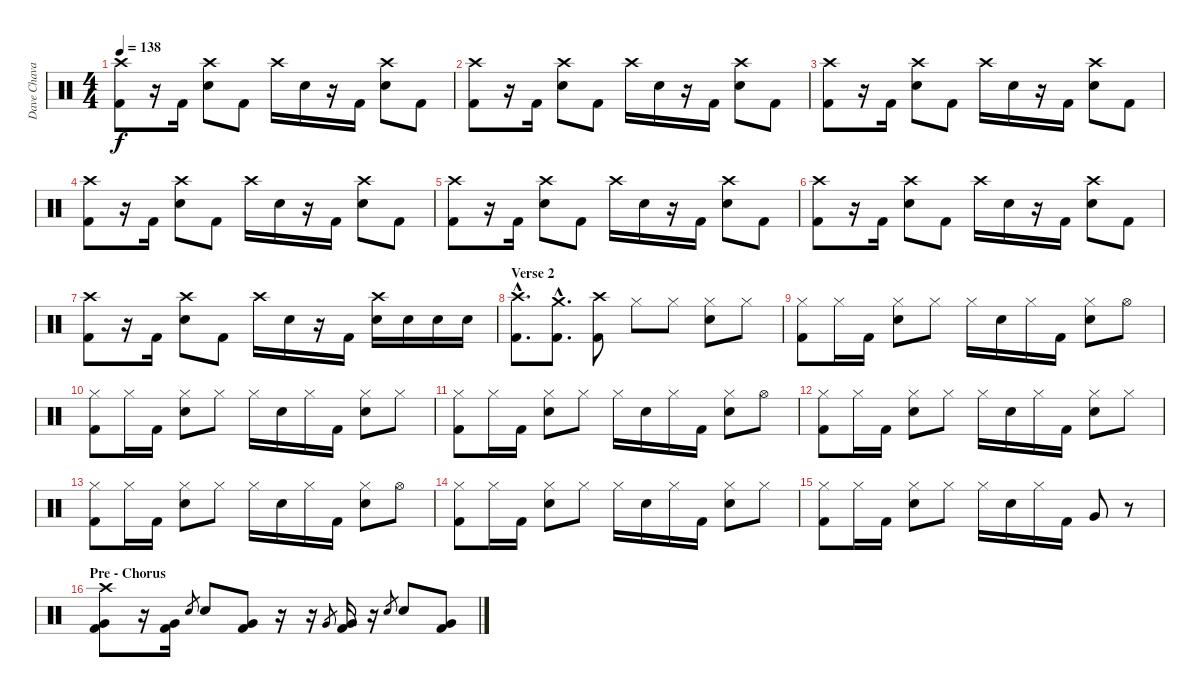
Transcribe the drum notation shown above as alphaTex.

\track ("Dave Chavarri - Drums" "Dave Chava") {instrument percussion}
\staff {score}
\articulation defaults
\ts (4 4)
\tempo 138
\clef neutral
\ks c
("Crash high (hit)" "Kick (hit) 2").8{dy f} r.16 "Kick (hit) 2".16 ("Crash high (hit)" "Electric Snare (hit)").8 "Kick (hit) 2".8 "Crash high (hit)".16 "Electric Snare (hit)".16 r.16 "Kick (hit) 2".16 ("Crash high (hit)" "Electric Snare (hit)").8 "Kick (hit) 2".8 |
("Crash high (hit)" "Kick (hit) 2").8 r.16 "Kick (hit) 2".16 ("Crash high (hit)" "Electric Snare (hit)").8 "Kick (hit) 2".8 "Crash high (hit)".16 "Electric Snare (hit)".16 r.16 "Kick (hit) 2".16 ("Crash high (hit)" "Electric Snare (hit)").8 "Kick (hit) 2".8 |
("Crash high (hit)" "Kick (hit) 2").8 r.16 "Kick (hit) 2".16 ("Crash high (hit)" "Electric Snare (hit)").8 "Kick (hit) 2".8 "Crash high (hit)".16 "Electric Snare (hit)".16 r.16 "Kick (hit) 2".16 ("Crash high (hit)" "Electric Snare (hit)").8 "Kick (hit) 2".8 |
("Crash high (hit)" "Kick (hit) 2").8 r.16 "Kick (hit) 2".16 ("Crash high (hit)" "Electric Snare (hit)").8 "Kick (hit) 2".8 "Crash high (hit)".16 "Electric Snare (hit)".16 r.16 "Kick (hit) 2".16 ("Crash high (hit)" "Electric Snare (hit)").8 "Kick (hit) 2".8 |
("Crash high (hit)" "Kick (hit) 2").8 r.16 "Kick (hit) 2".16 ("Crash high (hit)" "Electric Snare (hit)").8 "Kick (hit) 2".8 "Crash high (hit)".16 "Electric Snare (hit)".16 r.16 "Kick (hit) 2".16 ("Crash high (hit)" "Electric Snare (hit)").8 "Kick (hit) 2".8 |
("Crash high (hit)" "Kick (hit) 2").8 r.16 "Kick (hit) 2".16 ("Crash high (hit)" "Electric Snare (hit)").8 "Kick (hit) 2".8 "Crash high (hit)".16 "Electric Snare (hit)".16 r.16 "Kick (hit) 2".16 ("Crash high (hit)" "Electric Snare (hit)").8 "Kick (hit) 2".8 |
("Crash high (hit)" "Kick (hit) 2").8 r.16 "Kick (hit) 2".16 ("Crash high (hit)" "Electric Snare (hit)").8 "Kick (hit) 2".8 "Crash high (hit)".16 "Electric Snare (hit)".16 r.16 "Kick (hit) 2".16 ("Crash high (hit)" "Electric Snare (hit)").16 "Electric Snare (hit)".16 "Electric Snare (hit)".16 "Electric Snare (hit)".16 |
\section ("" "Verse 2")
("Crash high (hit)"{hac} "Kick (hit) 2"{hac}).8{d} ("Crash medium (hit)"{hac} "Kick (hit) 2"{hac}).8{d} ("Crash high (hit)" "Kick (hit) 2").8 "Hi-Hat (closed)".8 "Hi-Hat (closed)".8 ("Hi-Hat (closed)" "Electric Snare (hit)").8 "Hi-Hat (closed)".8 |
("Hi-Hat (closed)" "Kick (hit) 2").8 "Hi-Hat (closed)".16 "Kick (hit) 2".16 ("Hi-Hat (closed)" "Electric Snare (hit)").8 "Hi-Hat (closed)".8 "Hi-Hat (closed)".16 "Electric Snare (hit)".16 "Hi-Hat (closed)".16 "Kick (hit) 2".16 ("Hi-Hat (closed)" "Electric Snare (hit)").8 "Hi-Hat (open)".8 |
("Hi-Hat (closed)" "Kick (hit) 2").8 "Hi-Hat (closed)".16 "Kick (hit) 2".16 ("Hi-Hat (closed)" "Electric Snare (hit)").8 "Hi-Hat (closed)".8 "Hi-Hat (closed)".16 "Electric Snare (hit)".16 "Hi-Hat (closed)".16 "Kick (hit) 2".16 ("Hi-Hat (closed)" "Electric Snare (hit)").8 "Hi-Hat (closed)".8 |
("Hi-Hat (closed)" "Kick (hit) 2").8 "Hi-Hat (closed)".16 "Kick (hit) 2".16 ("Hi-Hat (closed)" "Electric Snare (hit)").8 "Hi-Hat (closed)".8 "Hi-Hat (closed)".16 "Electric Snare (hit)".16 "Hi-Hat (closed)".16 "Kick (hit) 2".16 ("Hi-Hat (closed)" "Electric Snare (hit)").8 "Hi-Hat (open)".8 |
("Hi-Hat (closed)" "Kick (hit) 2").8 "Hi-Hat (closed)".16 "Kick (hit) 2".16 ("Hi-Hat (closed)" "Electric Snare (hit)").8 "Hi-Hat (closed)".8 "Hi-Hat (closed)".16 "Electric Snare (hit)".16 "Hi-Hat (closed)".16 "Kick (hit) 2".16 ("Hi-Hat (closed)" "Electric Snare (hit)").8 "Hi-Hat (closed)".8 |
("Hi-Hat (closed)" "Kick (hit) 2").8 "Hi-Hat (closed)".16 "Kick (hit) 2".16 ("Hi-Hat (closed)" "Electric Snare (hit)").8 "Hi-Hat (closed)".8 "Hi-Hat (closed)".16 "Electric Snare (hit)".16 "Hi-Hat (closed)".16 "Kick (hit) 2".16 ("Hi-Hat (closed)" "Electric Snare (hit)").8 "Hi-Hat (open)".8 |
("Hi-Hat (closed)" "Kick (hit) 2").8 "Hi-Hat (closed)".16 "Kick (hit) 2".16 ("Hi-Hat (closed)" "Electric Snare (hit)").8 "Hi-Hat (closed)".8 "Hi-Hat (closed)".16 "Electric Snare (hit)".16 "Hi-Hat (closed)".16 "Kick (hit) 2".16 ("Hi-Hat (closed)" "Electric Snare (hit)").8 "Hi-Hat (closed)".8 |
("Hi-Hat (closed)" "Kick (hit) 2").8 "Hi-Hat (closed)".16 "Kick (hit) 2".16 ("Hi-Hat (closed)" "Electric Snare (hit)").8 "Hi-Hat (closed)".8 "Hi-Hat (closed)".16 "Electric Snare (hit)".16 "Hi-Hat (closed)".16 "Kick (hit) 2".16 "Very Low Tom (hit)".8 r.8 |
\section ("" "Pre - Chorus")
("Crash high (hit)" "Very Low Tom (hit)" "Kick (hit) 2").8 r.16 ("Very Low Tom (hit)" "Kick (hit) 2").16 "Electric Snare (hit)".8{gr} "Electric Snare (hit)".8 ("Very Low Tom (hit)" "Kick (hit) 2").8 r.16 r.16 "Very Low Tom (hit)".8{gr} ("Very Low Tom (hit)" "Kick (hit) 2").16 r.16 "Electric Snare (hit)".8{gr} "Electric Snare (hit)".8 ("Very Low Tom (hit)" "Kick (hit) 2").8
